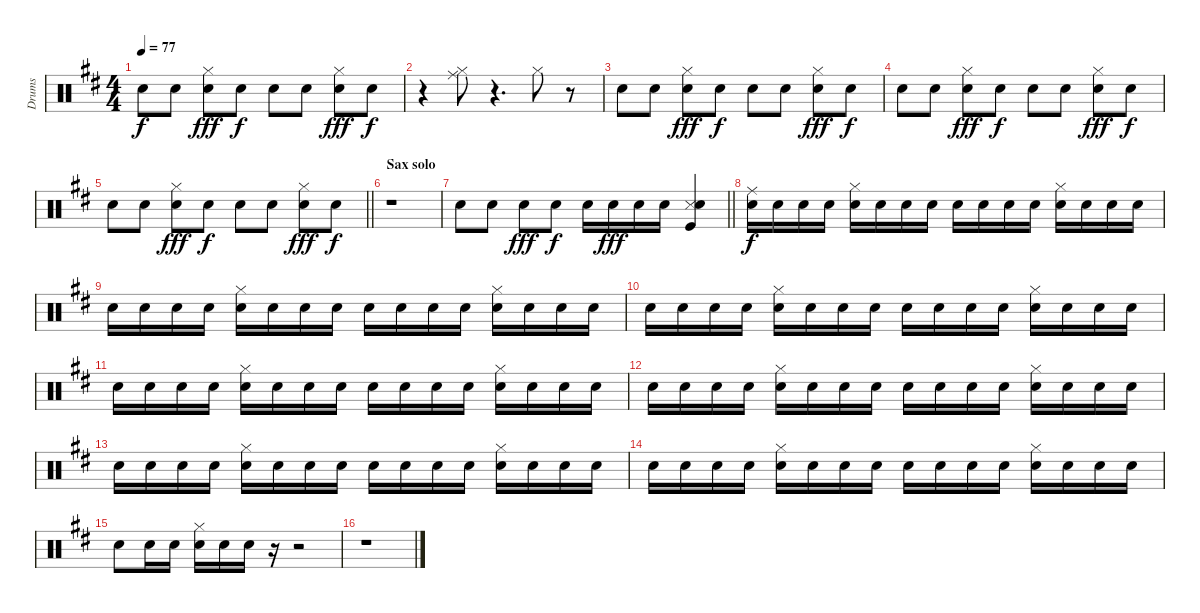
\track ("Drums" "Drums") {instrument percussion}
\staff {score}
\articulation defaults
\ts (4 4)
\tempo 77
\clef neutral
\ks d "Snare (hit) 2".8{dy f} "Snare (hit) 2".8
("Hi-Hat (closed)" "Snare (hit) 2").8{dy fff} "Snare (hit) 2".8{dy f} "Snare (hit) 2".8 "Snare (hit) 2".8 ("Hi-Hat (closed)" "Snare (hit) 2").8{dy fff} "Snare (hit) 2".8{dy f} |
r.4 ("Ride (middle)" "Hi-Hat (closed)").8 r.4{d} "Hi-Hat (closed)".8 r.8 |
"Snare (hit) 2".8 "Snare (hit) 2".8 ("Hi-Hat (closed)" "Snare (hit) 2").8{dy fff} "Snare (hit) 2".8{dy f} "Snare (hit) 2".8 "Snare (hit) 2".8 ("Hi-Hat (closed)" "Snare (hit) 2").8{dy fff} "Snare (hit) 2".8{dy f} |
"Snare (hit) 2".8 "Snare (hit) 2".8 ("Hi-Hat (closed)" "Snare (hit) 2").8{dy fff} "Snare (hit) 2".8{dy f} "Snare (hit) 2".8 "Snare (hit) 2".8 ("Hi-Hat (closed)" "Snare (hit) 2").8{dy fff} "Snare (hit) 2".8{dy f} |
\barLineRight lightlight "Snare (hit) 2".8 "Snare (hit) 2".8
("Hi-Hat (closed)" "Snare (hit) 2").8{dy fff} "Snare (hit) 2".8{dy f} "Snare (hit) 2".8 "Snare (hit) 2".8 ("Hi-Hat (closed)" "Snare (hit) 2").8{dy fff} "Snare (hit) 2".8{dy f} |
\section ("" "Sax solo")
r.1 |
\barLineRight lightlight "Snare (hit) 2".8 "Snare (hit) 2".8 "Snare (hit) 2".8{dy fff} "Snare (hit) 2".8{dy f} "Snare (hit) 2".16 "Snare (hit) 2".16{dy fff} "Snare (hit) 2".16 "Snare (hit) 2".16
("Snare (side stick) 3" "Snare (hit) 2" "Kick (hit)").4 |
("Ride (middle)" "Snare (hit) 2").16{dy f} "Snare (hit) 2".16 "Snare (hit) 2".16 "Snare (hit) 2".16 ("Hi-Hat (closed)" "Snare (hit) 2").16 "Snare (hit) 2".16 "Snare (hit) 2".16 "Snare (hit) 2".16 "Snare (hit) 2".16 "Snare (hit) 2".16 "Snare (hit) 2".16 "Snare (hit) 2".16 ("Hi-Hat (closed)" "Snare (hit) 2").16 "Snare (hit) 2".16 "Snare (hit) 2".16 "Snare (hit) 2".16 |
"Snare (hit) 2".16 "Snare (hit) 2".16 "Snare (hit) 2".16 "Snare (hit) 2".16 ("Hi-Hat (closed)" "Snare (hit) 2").16 "Snare (hit) 2".16 "Snare (hit) 2".16 "Snare (hit) 2".16 "Snare (hit) 2".16 "Snare (hit) 2".16 "Snare (hit) 2".16 "Snare (hit) 2".16 ("Hi-Hat (closed)" "Snare (hit) 2").16 "Snare (hit) 2".16 "Snare (hit) 2".16 "Snare (hit) 2".16 |
"Snare (hit) 2".16 "Snare (hit) 2".16 "Snare (hit) 2".16 "Snare (hit) 2".16 ("Hi-Hat (closed)" "Snare (hit) 2").16 "Snare (hit) 2".16 "Snare (hit) 2".16 "Snare (hit) 2".16 "Snare (hit) 2".16 "Snare (hit) 2".16 "Snare (hit) 2".16 "Snare (hit) 2".16 ("Hi-Hat (closed)" "Snare (hit) 2").16 "Snare (hit) 2".16 "Snare (hit) 2".16 "Snare (hit) 2".16 |
"Snare (hit) 2".16 "Snare (hit) 2".16 "Snare (hit) 2".16 "Snare (hit) 2".16 ("Hi-Hat (closed)" "Snare (hit) 2").16 "Snare (hit) 2".16 "Snare (hit) 2".16 "Snare (hit) 2".16 "Snare (hit) 2".16 "Snare (hit) 2".16 "Snare (hit) 2".16 "Snare (hit) 2".16 ("Hi-Hat (closed)" "Snare (hit) 2").16 "Snare (hit) 2".16 "Snare (hit) 2".16 "Snare (hit) 2".16 |
"Snare (hit) 2".16 "Snare (hit) 2".16 "Snare (hit) 2".16 "Snare (hit) 2".16 ("Hi-Hat (closed)" "Snare (hit) 2").16 "Snare (hit) 2".16 "Snare (hit) 2".16 "Snare (hit) 2".16 "Snare (hit) 2".16 "Snare (hit) 2".16 "Snare (hit) 2".16 "Snare (hit) 2".16 ("Hi-Hat (closed)" "Snare (hit) 2").16 "Snare (hit) 2".16 "Snare (hit) 2".16 "Snare (hit) 2".16 |
"Snare (hit) 2".16 "Snare (hit) 2".16 "Snare (hit) 2".16 "Snare (hit) 2".16 ("Hi-Hat (closed)" "Snare (hit) 2").16 "Snare (hit) 2".16 "Snare (hit) 2".16 "Snare (hit) 2".16 "Snare (hit) 2".16 "Snare (hit) 2".16 "Snare (hit) 2".16 "Snare (hit) 2".16 ("Hi-Hat (closed)" "Snare (hit) 2").16 "Snare (hit) 2".16 "Snare (hit) 2".16 "Snare (hit) 2".16 |
"Snare (hit) 2".16 "Snare (hit) 2".16 "Snare (hit) 2".16 "Snare (hit) 2".16 ("Hi-Hat (closed)" "Snare (hit) 2").16 "Snare (hit) 2".16 "Snare (hit) 2".16 "Snare (hit) 2".16 "Snare (hit) 2".16 "Snare (hit) 2".16 "Snare (hit) 2".16 "Snare (hit) 2".16 ("Hi-Hat (closed)" "Snare (hit) 2").16 "Snare (hit) 2".16 "Snare (hit) 2".16 "Snare (hit) 2".16 |
"Snare (hit) 2".8 "Snare (hit) 2".16 "Snare (hit) 2".16 ("Hi-Hat (closed)" "Snare (hit) 2").16 "Snare (hit) 2".16 "Snare (hit) 2".16 r.16 r.2 |
r.1
